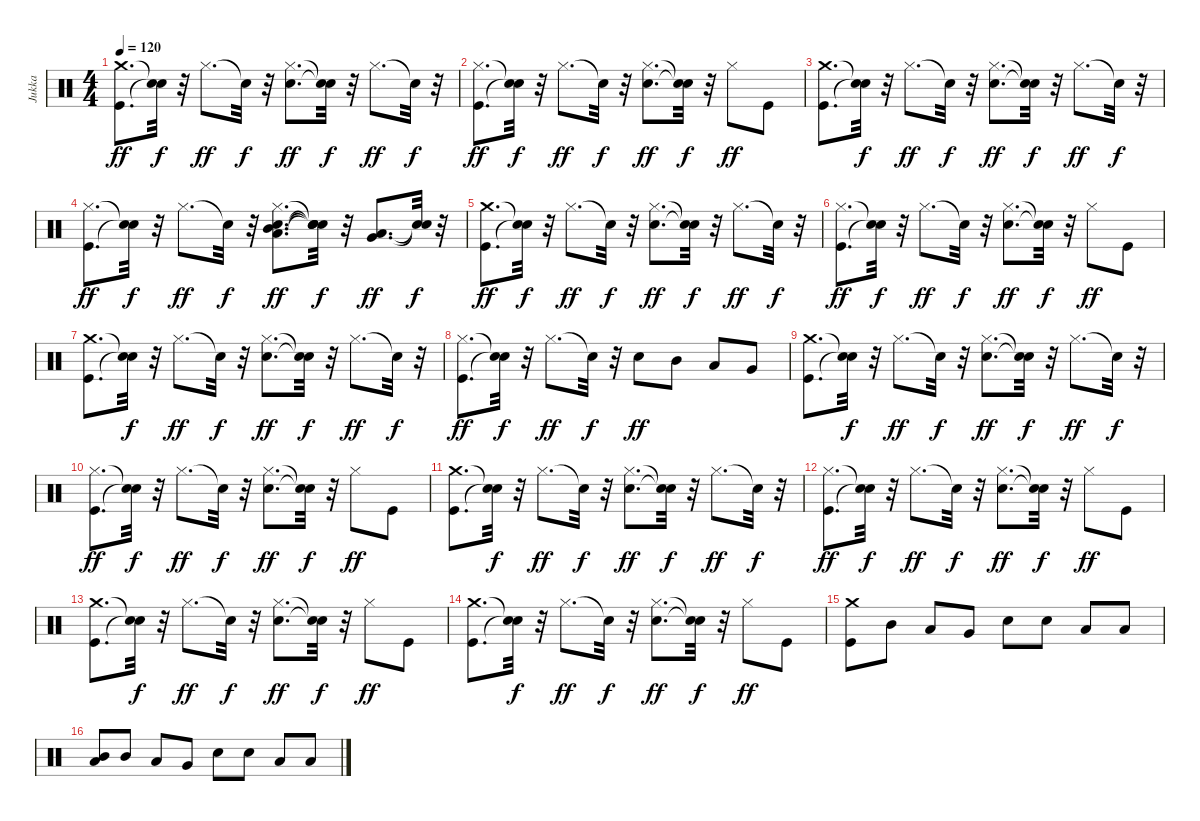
\track ("Jukka" "Jukka") {instrument percussion}
\staff {score}
\articulation defaults
\ts (4 4)
\tempo 120
\clef neutral
\ks c
("Kick (hit)" "Crash medium (hit)").8{d dy ff} ("Snare (hit)"{t} "Snare (hit)"{t}).32{dy f} r.32 "Hi-Hat (closed)".8{d dy ff} "Snare (hit)"{t}.32{dy f} r.32 ("Electric Snare (hit)" "Hi-Hat (closed)").8{d dy ff} ("Snare (hit)"{t} "Snare (hit)"{t}).32{dy f} r.32 "Hi-Hat (closed)".8{d dy ff} "Snare (hit)"{t}.32{dy f} r.32 |
("Kick (hit)" "Hi-Hat (closed)").8{d dy ff} ("Snare (hit)"{t} "Snare (hit)"{t}).32{dy f} r.32 "Hi-Hat (closed)".8{d dy ff} "Snare (hit)"{t}.32{dy f} r.32 ("Electric Snare (hit)" "Hi-Hat (closed)").8{d dy ff} ("Snare (hit)"{t} "Snare (hit)"{t}).32{dy f} r.32 "Hi-Hat (closed)".8{dy ff} "Kick (hit)".8 |
("Kick (hit)" "Crash medium (hit)").8{d} ("Snare (hit)"{t} "Snare (hit)"{t}).32{dy f} r.32 "Hi-Hat (closed)".8{d dy ff} "Snare (hit)"{t}.32{dy f} r.32 ("Electric Snare (hit)" "Hi-Hat (closed)").8{d dy ff} ("Snare (hit)"{t} "Snare (hit)"{t}).32{dy f} r.32 "Hi-Hat (closed)".8{d dy ff} "Snare (hit)"{t}.32{dy f} r.32 |
("Kick (hit)" "Hi-Hat (closed)").8{d dy ff} ("Snare (hit)"{t} "Snare (hit)"{t}).32{dy f} r.32 "Hi-Hat (closed)".8{d dy ff} "Snare (hit)"{t}.32{dy f} r.32 ("Electric Snare (hit)" "Hi-Hat (closed)" "Low Tom (hit)" "Mid Tom (hit)").8{d dy ff} ("Snare (hit)"{t} "Snare (hit)"{t} "Snare (hit)"{t} "Snare (hit)"{t}).32{dy f} r.32 ("Very Low Tom (hit)" "Low Tom (hit)").8{d dy ff} ("Snare (hit)"{t} "Snare (hit)"{t}).32{dy f} r.32 |
("Kick (hit)" "Crash medium (hit)").8{d dy ff} ("Snare (hit)"{t} "Snare (hit)"{t}).32{dy f} r.32 "Hi-Hat (closed)".8{d dy ff} "Snare (hit)"{t}.32{dy f} r.32 ("Electric Snare (hit)" "Hi-Hat (closed)").8{d dy ff} ("Snare (hit)"{t} "Snare (hit)"{t}).32{dy f} r.32 "Hi-Hat (closed)".8{d dy ff} "Snare (hit)"{t}.32{dy f} r.32 |
("Kick (hit)" "Hi-Hat (closed)").8{d dy ff} ("Snare (hit)"{t} "Snare (hit)"{t}).32{dy f} r.32 "Hi-Hat (closed)".8{d dy ff} "Snare (hit)"{t}.32{dy f} r.32 ("Electric Snare (hit)" "Hi-Hat (closed)").8{d dy ff} ("Snare (hit)"{t} "Snare (hit)"{t}).32{dy f} r.32 "Hi-Hat (closed)".8{dy ff} "Kick (hit)".8 |
("Kick (hit)" "Crash medium (hit)").8{d} ("Snare (hit)"{t} "Snare (hit)"{t}).32{dy f} r.32 "Hi-Hat (closed)".8{d dy ff} "Snare (hit)"{t}.32{dy f} r.32 ("Electric Snare (hit)" "Hi-Hat (closed)").8{d dy ff} ("Snare (hit)"{t} "Snare (hit)"{t}).32{dy f} r.32 "Hi-Hat (closed)".8{d dy ff} "Snare (hit)"{t}.32{dy f} r.32 |
("Kick (hit)" "Hi-Hat (closed)").8{d dy ff} ("Snare (hit)"{t} "Snare (hit)"{t}).32{dy f} r.32 "Hi-Hat (closed)".8{d dy ff} "Snare (hit)"{t}.32{dy f} r.32 "Electric Snare (hit)".8{dy ff} "Mid Tom (hit)".8 "Low Tom (hit)".8 "Very Low Tom (hit)".8 |
("Kick (hit)" "Crash medium (hit)").8{d} ("Snare (hit)"{t} "Snare (hit)"{t}).32{dy f} r.32 "Hi-Hat (closed)".8{d dy ff} "Snare (hit)"{t}.32{dy f} r.32 ("Electric Snare (hit)" "Hi-Hat (closed)").8{d dy ff} ("Snare (hit)"{t} "Snare (hit)"{t}).32{dy f} r.32 "Hi-Hat (closed)".8{d dy ff} "Snare (hit)"{t}.32{dy f} r.32 |
("Kick (hit)" "Hi-Hat (closed)").8{d dy ff} ("Snare (hit)"{t} "Snare (hit)"{t}).32{dy f} r.32 "Hi-Hat (closed)".8{d dy ff} "Snare (hit)"{t}.32{dy f} r.32 ("Electric Snare (hit)" "Hi-Hat (closed)").8{d dy ff} ("Snare (hit)"{t} "Snare (hit)"{t}).32{dy f} r.32 "Hi-Hat (closed)".8{dy ff} "Kick (hit)".8 |
("Kick (hit)" "Crash medium (hit)").8{d} ("Snare (hit)"{t} "Snare (hit)"{t}).32{dy f} r.32 "Hi-Hat (closed)".8{d dy ff} "Snare (hit)"{t}.32{dy f} r.32 ("Electric Snare (hit)" "Hi-Hat (closed)").8{d dy ff} ("Snare (hit)"{t} "Snare (hit)"{t}).32{dy f} r.32 "Hi-Hat (closed)".8{d dy ff} "Snare (hit)"{t}.32{dy f} r.32 |
("Kick (hit)" "Hi-Hat (closed)").8{d dy ff} ("Snare (hit)"{t} "Snare (hit)"{t}).32{dy f} r.32 "Hi-Hat (closed)".8{d dy ff} "Snare (hit)"{t}.32{dy f} r.32 ("Electric Snare (hit)" "Hi-Hat (closed)").8{d dy ff} ("Snare (hit)"{t} "Snare (hit)"{t}).32{dy f} r.32 "Hi-Hat (closed)".8{dy ff} "Kick (hit)".8 |
("Kick (hit)" "Crash medium (hit)").8{d} ("Snare (hit)"{t} "Snare (hit)"{t}).32{dy f} r.32 "Hi-Hat (closed)".8{d dy ff} "Snare (hit)"{t}.32{dy f} r.32 ("Electric Snare (hit)" "Hi-Hat (closed)").8{d dy ff} ("Snare (hit)"{t} "Snare (hit)"{t}).32{dy f} r.32 "Hi-Hat (closed)".8{dy ff} "Kick (hit)".8 |
("Kick (hit)" "Crash medium (hit)").8{d} ("Snare (hit)"{t} "Snare (hit)"{t}).32{dy f} r.32 "Hi-Hat (closed)".8{d dy ff} "Snare (hit)"{t}.32{dy f} r.32 ("Electric Snare (hit)" "Hi-Hat (closed)").8{d dy ff} ("Snare (hit)"{t} "Snare (hit)"{t}).32{dy f} r.32 "Hi-Hat (closed)".8{dy ff} "Kick (hit)".8 |
("Kick (hit)" "Crash medium (hit)").8 "Mid Tom (hit)".8 "Low Tom (hit)".8 "Very Low Tom (hit)".8 "Electric Snare (hit)".8 "Electric Snare (hit)".8 "Low Floor Tom (hit)".8 "Low Floor Tom (hit)".8 |
("Low Tom (hit)" "Mid Tom (hit)").8 "Mid Tom (hit)".8 "Low Tom (hit)".8 "Very Low Tom (hit)".8 "Electric Snare (hit)".8 "Electric Snare (hit)".8 "Low Floor Tom (hit)".8 "Low Floor Tom (hit)".8
